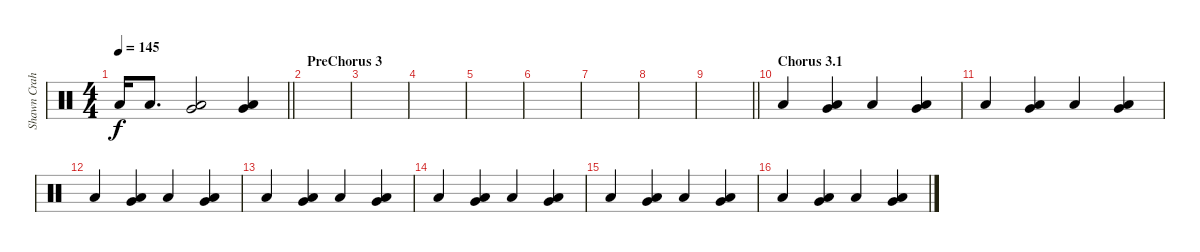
\track ("Shawn Crahan" "Shawn Crah") {instrument percussion}
\staff {score}
\articulation defaults
\ts (4 4)
\tempo 145
\clef neutral
\barLineRight lightlight
\ks c "Low Floor Tom (hit)".16{dy f} "Low Floor Tom (hit)".8{d}
("Very Low Tom (hit)" "Low Floor Tom (hit)").2 ("Very Low Tom (hit)" "Low Floor Tom (hit)").4 |
\section ("" "PreChorus 3")
|
|
|
|
|
|
|
\barLineRight lightlight
|
\section ("" "Chorus 3.1")
"Low Floor Tom (hit)".4 ("Very Low Tom (hit)" "Low Floor Tom (hit)").4 "Low Floor Tom (hit)".4 ("Very Low Tom (hit)" "Low Floor Tom (hit)").4 |
"Low Floor Tom (hit)".4 ("Very Low Tom (hit)" "Low Floor Tom (hit)").4 "Low Floor Tom (hit)".4 ("Very Low Tom (hit)" "Low Floor Tom (hit)").4 |
"Low Floor Tom (hit)".4 ("Very Low Tom (hit)" "Low Floor Tom (hit)").4 "Low Floor Tom (hit)".4 ("Very Low Tom (hit)" "Low Floor Tom (hit)").4 |
"Low Floor Tom (hit)".4 ("Very Low Tom (hit)" "Low Floor Tom (hit)").4 "Low Floor Tom (hit)".4 ("Very Low Tom (hit)" "Low Floor Tom (hit)").4 |
"Low Floor Tom (hit)".4 ("Very Low Tom (hit)" "Low Floor Tom (hit)").4 "Low Floor Tom (hit)".4 ("Very Low Tom (hit)" "Low Floor Tom (hit)").4 |
"Low Floor Tom (hit)".4 ("Very Low Tom (hit)" "Low Floor Tom (hit)").4 "Low Floor Tom (hit)".4 ("Very Low Tom (hit)" "Low Floor Tom (hit)").4 |
"Low Floor Tom (hit)".4 ("Very Low Tom (hit)" "Low Floor Tom (hit)").4 "Low Floor Tom (hit)".4 ("Very Low Tom (hit)" "Low Floor Tom (hit)").4
